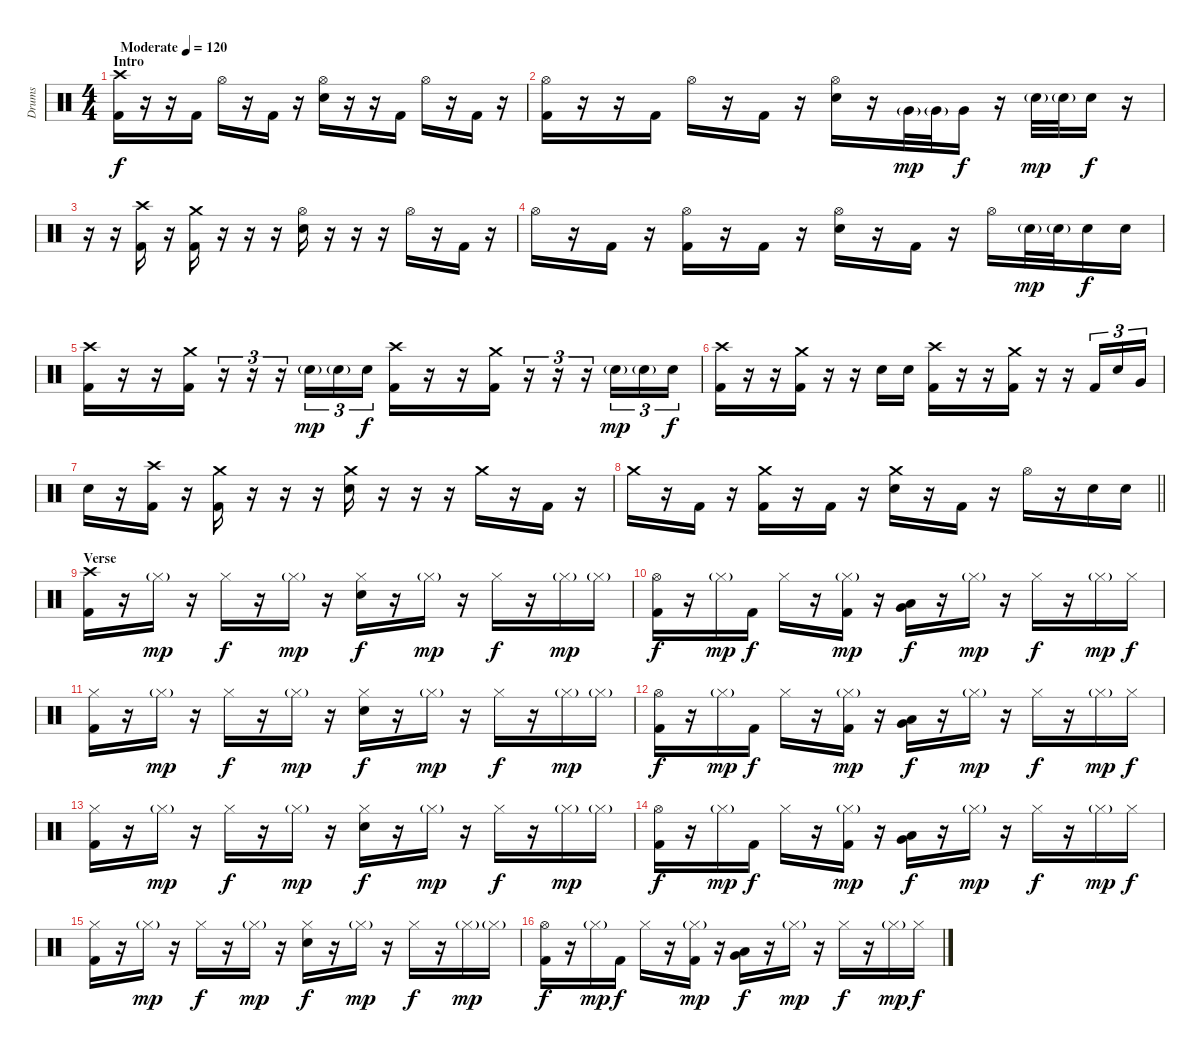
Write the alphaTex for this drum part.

\track ("Drums" "Drums") {instrument percussion}
\staff {score}
\articulation defaults
\ts (4 4)
\section ("" "Intro")
\tempo (120 "Moderate")
\clef neutral
\ks c
("Crash high (hit)" "Kick (hit) 2").16{dy f} r.16 r.16 "Kick (hit) 2".16 "Hi-Hat (open)".16 r.16 "Kick (hit) 2".16 r.16 ("Hi-Hat (open)" "Electric Snare (hit)").16 r.16 r.16 "Kick (hit) 2".16 "Hi-Hat (open)".16 r.16 "Kick (hit) 2".16 r.16 |
("Hi-Hat (open)" "Kick (hit) 2").16 r.16 r.16 "Kick (hit) 2".16 "Hi-Hat (open)".16 r.16 "Kick (hit) 2".16 r.16 ("Hi-Hat (open)" "Electric Snare (hit)").16 r.16 "Very Low Tom (hit)"{g}.32{dy mp} "Very Low Tom (hit)"{g}.32 "Very Low Tom (hit)".16{dy f} r.16 "Electric Snare (hit)"{g}.32{dy mp} "Electric Snare (hit)"{g}.32 "Electric Snare (hit)".16{dy f} r.16 |
r.16 r.16 ("Crash high (hit)" "Kick (hit) 2").16 r.16 ("Crash medium (hit)" "Kick (hit) 2").16 r.16 r.16 r.16 ("Hi-Hat (open)" "Electric Snare (hit)").16 r.16 r.16 r.16 "Hi-Hat (open)".16 r.16 "Kick (hit) 2".16 r.16 |
"Hi-Hat (open)".16 r.16 "Kick (hit) 2".16 r.16 ("Hi-Hat (open)" "Kick (hit) 2").16 r.16 "Kick (hit) 2".16 r.16 ("Hi-Hat (open)" "Electric Snare (hit)").16 r.16 "Kick (hit) 2".16 r.16 "Hi-Hat (open)".16 "Electric Snare (hit)"{g}.32{dy mp} "Electric Snare (hit)"{g}.32 "Electric Snare (hit)".16{dy f} "Electric Snare (hit)".16 |
("Crash high (hit)" "Kick (hit) 2").16 r.16 r.16 ("Crash medium (hit)" "Kick (hit) 2").16 r.16{tu (3 2)} r.16{tu (3 2)} r.16{tu (3 2)} "Electric Snare (hit)"{g}.16{tu (3 2) dy mp} "Electric Snare (hit)"{g}.16{tu (3 2)} "Electric Snare (hit)".16{tu (3 2) dy f} ("Crash high (hit)" "Kick (hit) 2").16 r.16 r.16 ("Crash medium (hit)" "Kick (hit) 2").16 r.16{tu (3 2)} r.16{tu (3 2)} r.16{tu (3 2)} "Electric Snare (hit)"{g}.16{tu (3 2) dy mp} "Electric Snare (hit)"{g}.16{tu (3 2)} "Electric Snare (hit)".16{tu (3 2) dy f} |
("Crash high (hit)" "Kick (hit) 2").16 r.16 r.16 ("Crash medium (hit)" "Kick (hit) 2").16 r.16 r.16 "Electric Snare (hit)".16 "Electric Snare (hit)".16 ("Crash high (hit)" "Kick (hit) 2").16 r.16 r.16 ("Crash medium (hit)" "Kick (hit) 2").16 r.16 r.16 "Kick (hit) 2".16{tu (3 2)} "Electric Snare (hit)".16{tu (3 2)} "Very Low Tom (hit)".16{tu (3 2)} |
"Electric Snare (hit)".16 r.16 ("Crash high (hit)" "Kick (hit) 2").16 r.16 ("Crash medium (hit)" "Kick (hit) 2").16 r.16 r.16 r.16 ("Crash medium (hit)" "Electric Snare (hit)").16 r.16 r.16 r.16 "Crash medium (hit)".16 r.16 "Kick (hit) 2".16 r.16 |
\barLineRight lightlight "Crash medium (hit)".16
r.16 "Kick (hit) 2".16 r.16 ("Crash medium (hit)" "Kick (hit) 2").16 r.16 "Kick (hit) 2".16 r.16 ("Crash medium (hit)" "Electric Snare (hit)").16 r.16 "Kick (hit) 2".16 r.16 "Hi-Hat (open)".16 r.16 "Electric Snare (hit)".16 "Electric Snare (hit)".16 |
\section ("" "Verse")
("Crash high (hit)" "Kick (hit) 2").16 r.16 "Hi-Hat (closed)"{g}.16{dy mp} r.16 "Hi-Hat (closed)".16{dy f} r.16 "Hi-Hat (closed)"{g}.16{dy mp} r.16 ("Hi-Hat (closed)" "Electric Snare (hit)").16{dy f} r.16 "Hi-Hat (closed)"{g}.16{dy mp} r.16 "Hi-Hat (closed)".16{dy f} r.16 "Hi-Hat (closed)"{g}.16{dy mp} "Hi-Hat (closed)"{g}.16 |
("Hi-Hat (open)" "Kick (hit) 2").16{dy f} r.16 "Hi-Hat (closed)"{g}.16{dy mp} "Kick (hit) 2".16{dy f} "Hi-Hat (closed)".16 r.16 ("Hi-Hat (closed)"{g} "Kick (hit) 2").16{dy mp} r.16 ("Low Floor Tom (hit)" "Very Low Tom (hit)").16{dy f} r.16 "Hi-Hat (closed)"{g}.16{dy mp} r.16 "Hi-Hat (closed)".16{dy f} r.16 "Hi-Hat (closed)"{g}.16{dy mp} "Hi-Hat (closed)".16{dy f} |
("Hi-Hat (closed)" "Kick (hit) 2").16 r.16 "Hi-Hat (closed)"{g}.16{dy mp} r.16 "Hi-Hat (closed)".16{dy f} r.16 "Hi-Hat (closed)"{g}.16{dy mp} r.16 ("Hi-Hat (closed)" "Electric Snare (hit)").16{dy f} r.16 "Hi-Hat (closed)"{g}.16{dy mp} r.16 "Hi-Hat (closed)".16{dy f} r.16 "Hi-Hat (closed)"{g}.16{dy mp} "Hi-Hat (closed)"{g}.16 |
("Hi-Hat (open)" "Kick (hit) 2").16{dy f} r.16 "Hi-Hat (closed)"{g}.16{dy mp} "Kick (hit) 2".16{dy f} "Hi-Hat (closed)".16 r.16 ("Hi-Hat (closed)"{g} "Kick (hit) 2").16{dy mp} r.16 ("Low Floor Tom (hit)" "Very Low Tom (hit)").16{dy f} r.16 "Hi-Hat (closed)"{g}.16{dy mp} r.16 "Hi-Hat (closed)".16{dy f} r.16 "Hi-Hat (closed)"{g}.16{dy mp} "Hi-Hat (closed)".16{dy f} |
("Hi-Hat (closed)" "Kick (hit) 2").16 r.16 "Hi-Hat (closed)"{g}.16{dy mp} r.16 "Hi-Hat (closed)".16{dy f} r.16 "Hi-Hat (closed)"{g}.16{dy mp} r.16 ("Hi-Hat (closed)" "Electric Snare (hit)").16{dy f} r.16 "Hi-Hat (closed)"{g}.16{dy mp} r.16 "Hi-Hat (closed)".16{dy f} r.16 "Hi-Hat (closed)"{g}.16{dy mp} "Hi-Hat (closed)"{g}.16 |
("Hi-Hat (open)" "Kick (hit) 2").16{dy f} r.16 "Hi-Hat (closed)"{g}.16{dy mp} "Kick (hit) 2".16{dy f} "Hi-Hat (closed)".16 r.16 ("Hi-Hat (closed)"{g} "Kick (hit) 2").16{dy mp} r.16 ("Low Floor Tom (hit)" "Very Low Tom (hit)").16{dy f} r.16 "Hi-Hat (closed)"{g}.16{dy mp} r.16 "Hi-Hat (closed)".16{dy f} r.16 "Hi-Hat (closed)"{g}.16{dy mp} "Hi-Hat (closed)".16{dy f} |
("Hi-Hat (closed)" "Kick (hit) 2").16 r.16 "Hi-Hat (closed)"{g}.16{dy mp} r.16 "Hi-Hat (closed)".16{dy f} r.16 "Hi-Hat (closed)"{g}.16{dy mp} r.16 ("Hi-Hat (closed)" "Electric Snare (hit)").16{dy f} r.16 "Hi-Hat (closed)"{g}.16{dy mp} r.16 "Hi-Hat (closed)".16{dy f} r.16 "Hi-Hat (closed)"{g}.16{dy mp} "Hi-Hat (closed)"{g}.16 |
("Hi-Hat (open)" "Kick (hit) 2").16{dy f} r.16 "Hi-Hat (closed)"{g}.16{dy mp} "Kick (hit) 2".16{dy f} "Hi-Hat (closed)".16 r.16 ("Hi-Hat (closed)"{g} "Kick (hit) 2").16{dy mp} r.16 ("Low Floor Tom (hit)" "Very Low Tom (hit)").16{dy f} r.16 "Hi-Hat (closed)"{g}.16{dy mp} r.16 "Hi-Hat (closed)".16{dy f} r.16 "Hi-Hat (closed)"{g}.16{dy mp} "Hi-Hat (closed)".16{dy f}
